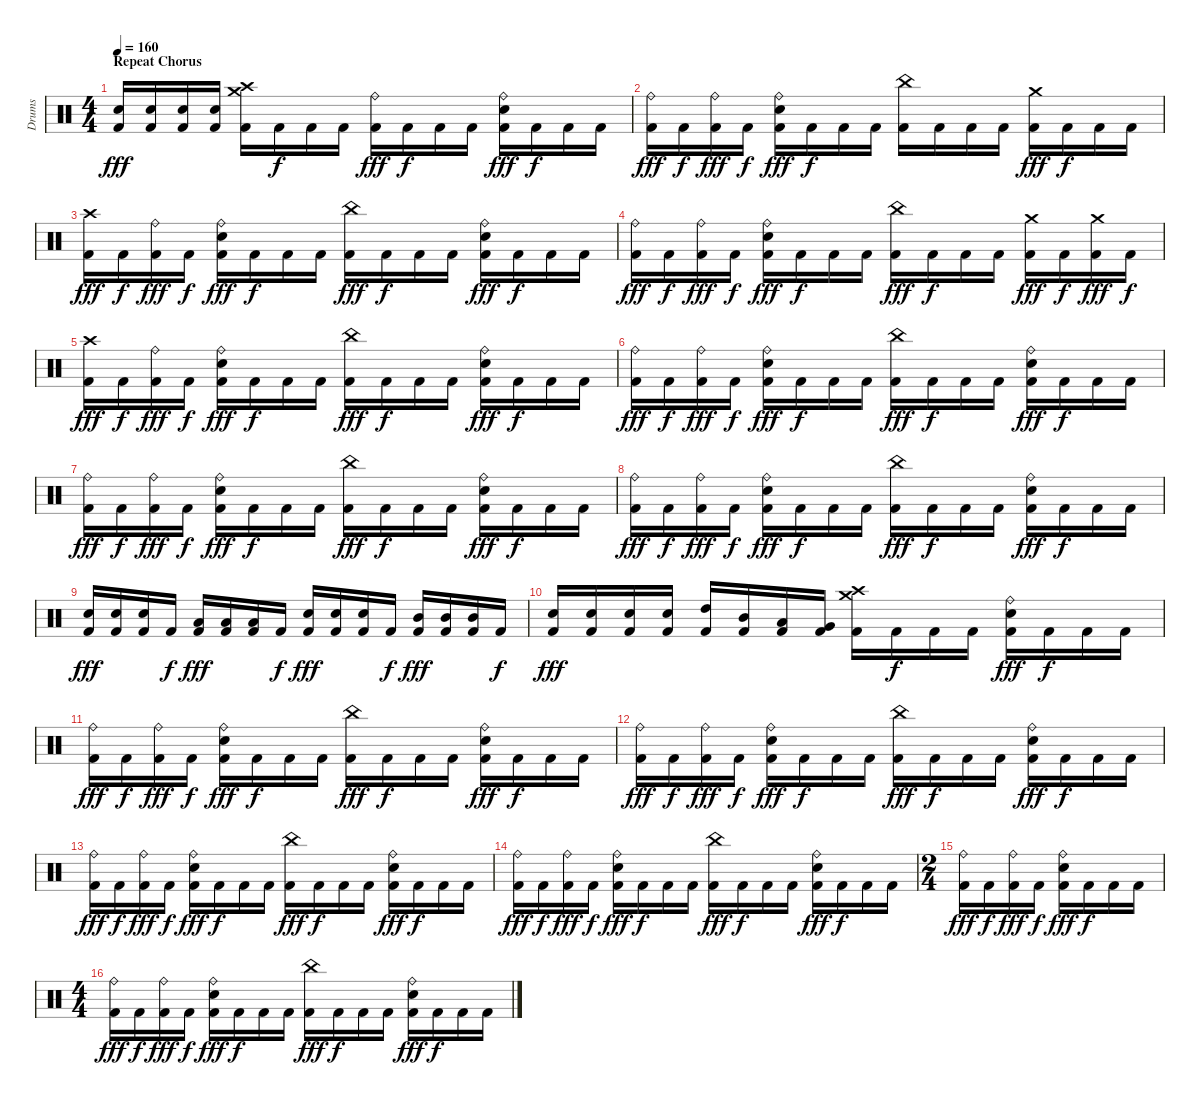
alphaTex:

\track ("Drums" "Drums") {instrument percussion}
\staff {score}
\articulation defaults
\ts (4 4)
\section ("" "Repeat Chorus")
\tempo 160
\clef neutral
\ks c
("Electric Snare (hit)" "Kick (hit) 2").16{dy fff} ("Electric Snare (hit)" "Kick (hit) 2").16 ("Electric Snare (hit)" "Kick (hit) 2").16 ("Electric Snare (hit)" "Kick (hit) 2").16 ("Crash high (hit)" "Crash medium (hit)" "Kick (hit) 2").16 "Kick (hit) 2".16{dy f} "Kick (hit) 2".16 "Kick (hit) 2".16 ("Ride (bell)" "Kick (hit) 2").16{dy fff} "Kick (hit) 2".16{dy f} "Kick (hit) 2".16 "Kick (hit) 2".16 ("Ride (bell)" "Electric Snare (hit)" "Kick (hit) 2").16{dy fff} "Kick (hit) 2".16{dy f} "Kick (hit) 2".16 "Kick (hit) 2".16 |
("Ride (bell)" "Kick (hit) 2").16{dy fff} "Kick (hit) 2".16{dy f} ("Ride (bell)" "Kick (hit) 2").16{dy fff} "Kick (hit) 2".16{dy f} ("Ride (bell)" "Electric Snare (hit)" "Kick (hit) 2").16{dy fff} "Kick (hit) 2".16{dy f} "Kick (hit) 2".16 "Kick (hit) 2".16 ("China (hit)" "Kick (hit) 2").16 "Kick (hit) 2".16 "Kick (hit) 2".16 "Kick (hit) 2".16 ("Crash medium (hit)" "Kick (hit) 2").16{dy fff} "Kick (hit) 2".16{dy f} "Kick (hit) 2".16 "Kick (hit) 2".16 |
("Crash high (hit)" "Kick (hit) 2").16{dy fff} "Kick (hit) 2".16{dy f} ("Ride (bell)" "Kick (hit) 2").16{dy fff} "Kick (hit) 2".16{dy f} ("Ride (bell)" "Electric Snare (hit)" "Kick (hit) 2").16{dy fff} "Kick (hit) 2".16{dy f} "Kick (hit) 2".16 "Kick (hit) 2".16 ("China (hit)" "Kick (hit) 2").16{dy fff} "Kick (hit) 2".16{dy f} "Kick (hit) 2".16 "Kick (hit) 2".16 ("Ride (bell)" "Electric Snare (hit)" "Kick (hit) 2").16{dy fff} "Kick (hit) 2".16{dy f} "Kick (hit) 2".16 "Kick (hit) 2".16 |
("Ride (bell)" "Kick (hit) 2").16{dy fff} "Kick (hit) 2".16{dy f} ("Ride (bell)" "Kick (hit) 2").16{dy fff} "Kick (hit) 2".16{dy f} ("Ride (bell)" "Electric Snare (hit)" "Kick (hit) 2").16{dy fff} "Kick (hit) 2".16{dy f} "Kick (hit) 2".16 "Kick (hit) 2".16 ("China (hit)" "Kick (hit) 2").16{dy fff} "Kick (hit) 2".16{dy f} "Kick (hit) 2".16 "Kick (hit) 2".16 ("Crash medium (hit)" "Kick (hit) 2").16{dy fff} "Kick (hit) 2".16{dy f} ("Crash medium (hit)" "Kick (hit) 2").16{dy fff} "Kick (hit) 2".16{dy f} |
("Crash high (hit)" "Kick (hit) 2").16{dy fff} "Kick (hit) 2".16{dy f} ("Ride (bell)" "Kick (hit) 2").16{dy fff} "Kick (hit) 2".16{dy f} ("Ride (bell)" "Electric Snare (hit)" "Kick (hit) 2").16{dy fff} "Kick (hit) 2".16{dy f} "Kick (hit) 2".16 "Kick (hit) 2".16 ("China (hit)" "Kick (hit) 2").16{dy fff} "Kick (hit) 2".16{dy f} "Kick (hit) 2".16 "Kick (hit) 2".16 ("Ride (bell)" "Electric Snare (hit)" "Kick (hit) 2").16{dy fff} "Kick (hit) 2".16{dy f} "Kick (hit) 2".16 "Kick (hit) 2".16 |
("Ride (bell)" "Kick (hit) 2").16{dy fff} "Kick (hit) 2".16{dy f} ("Ride (bell)" "Kick (hit) 2").16{dy fff} "Kick (hit) 2".16{dy f} ("Ride (bell)" "Electric Snare (hit)" "Kick (hit) 2").16{dy fff} "Kick (hit) 2".16{dy f} "Kick (hit) 2".16 "Kick (hit) 2".16 ("China (hit)" "Kick (hit) 2").16{dy fff} "Kick (hit) 2".16{dy f} "Kick (hit) 2".16 "Kick (hit) 2".16 ("Ride (bell)" "Electric Snare (hit)" "Kick (hit) 2").16{dy fff} "Kick (hit) 2".16{dy f} "Kick (hit) 2".16 "Kick (hit) 2".16 |
("Ride (bell)" "Kick (hit) 2").16{dy fff} "Kick (hit) 2".16{dy f} ("Ride (bell)" "Kick (hit) 2").16{dy fff} "Kick (hit) 2".16{dy f} ("Ride (bell)" "Electric Snare (hit)" "Kick (hit) 2").16{dy fff} "Kick (hit) 2".16{dy f} "Kick (hit) 2".16 "Kick (hit) 2".16 ("China (hit)" "Kick (hit) 2").16{dy fff} "Kick (hit) 2".16{dy f} "Kick (hit) 2".16 "Kick (hit) 2".16 ("Ride (bell)" "Electric Snare (hit)" "Kick (hit) 2").16{dy fff} "Kick (hit) 2".16{dy f} "Kick (hit) 2".16 "Kick (hit) 2".16 |
("Ride (bell)" "Kick (hit) 2").16{dy fff} "Kick (hit) 2".16{dy f} ("Ride (bell)" "Kick (hit) 2").16{dy fff} "Kick (hit) 2".16{dy f} ("Ride (bell)" "Electric Snare (hit)" "Kick (hit) 2").16{dy fff} "Kick (hit) 2".16{dy f} "Kick (hit) 2".16 "Kick (hit) 2".16 ("China (hit)" "Kick (hit) 2").16{dy fff} "Kick (hit) 2".16{dy f} "Kick (hit) 2".16 "Kick (hit) 2".16 ("Ride (bell)" "Electric Snare (hit)" "Kick (hit) 2").16{dy fff} "Kick (hit) 2".16{dy f} "Kick (hit) 2".16 "Kick (hit) 2".16 |
("Electric Snare (hit)" "Kick (hit) 2").16{dy fff} ("Electric Snare (hit)" "Kick (hit) 2").16 ("Electric Snare (hit)" "Kick (hit) 2").16 "Kick (hit) 2".16{dy f} ("Low Tom (hit)" "Kick (hit) 2").16{dy fff} ("Low Tom (hit)" "Kick (hit) 2").16 ("Low Tom (hit)" "Kick (hit) 2").16 "Kick (hit) 2".16{dy f} ("Electric Snare (hit)" "Kick (hit) 2").16{dy fff} ("Electric Snare (hit)" "Kick (hit) 2").16 ("Electric Snare (hit)" "Kick (hit) 2").16 "Kick (hit) 2".16{dy f} ("Mid Tom (hit)" "Kick (hit) 2").16{dy fff} ("Mid Tom (hit)" "Kick (hit) 2").16 ("Mid Tom (hit)" "Kick (hit) 2").16 "Kick (hit) 2".16{dy f} |
("Electric Snare (hit)" "Kick (hit) 2").16{dy fff} ("Electric Snare (hit)" "Kick (hit) 2").16 ("Electric Snare (hit)" "Kick (hit) 2").16 ("Electric Snare (hit)" "Kick (hit) 2").16 ("High Tom (hit)" "Kick (hit) 2").16 ("Mid Tom (hit)" "Kick (hit) 2").16 ("Low Tom (hit)" "Kick (hit) 2").16 ("Very Low Tom (hit)" "Kick (hit) 2").16 ("Crash high (hit)" "Crash medium (hit)" "Kick (hit) 2").16 "Kick (hit) 2".16{dy f} "Kick (hit) 2".16 "Kick (hit) 2".16 ("Ride (bell)" "Electric Snare (hit)" "Kick (hit) 2").16{dy fff} "Kick (hit) 2".16{dy f} "Kick (hit) 2".16 "Kick (hit) 2".16 |
("Ride (bell)" "Kick (hit) 2").16{dy fff} "Kick (hit) 2".16{dy f} ("Ride (bell)" "Kick (hit) 2").16{dy fff} "Kick (hit) 2".16{dy f} ("Ride (bell)" "Electric Snare (hit)" "Kick (hit) 2").16{dy fff} "Kick (hit) 2".16{dy f} "Kick (hit) 2".16 "Kick (hit) 2".16 ("China (hit)" "Kick (hit) 2").16{dy fff} "Kick (hit) 2".16{dy f} "Kick (hit) 2".16 "Kick (hit) 2".16 ("Ride (bell)" "Electric Snare (hit)" "Kick (hit) 2").16{dy fff} "Kick (hit) 2".16{dy f} "Kick (hit) 2".16 "Kick (hit) 2".16 |
("Ride (bell)" "Kick (hit) 2").16{dy fff} "Kick (hit) 2".16{dy f} ("Ride (bell)" "Kick (hit) 2").16{dy fff} "Kick (hit) 2".16{dy f} ("Ride (bell)" "Electric Snare (hit)" "Kick (hit) 2").16{dy fff} "Kick (hit) 2".16{dy f} "Kick (hit) 2".16 "Kick (hit) 2".16 ("China (hit)" "Kick (hit) 2").16{dy fff} "Kick (hit) 2".16{dy f} "Kick (hit) 2".16 "Kick (hit) 2".16 ("Ride (bell)" "Electric Snare (hit)" "Kick (hit) 2").16{dy fff} "Kick (hit) 2".16{dy f} "Kick (hit) 2".16 "Kick (hit) 2".16 |
("Ride (bell)" "Kick (hit) 2").16{dy fff} "Kick (hit) 2".16{dy f} ("Ride (bell)" "Kick (hit) 2").16{dy fff} "Kick (hit) 2".16{dy f} ("Ride (bell)" "Electric Snare (hit)" "Kick (hit) 2").16{dy fff} "Kick (hit) 2".16{dy f} "Kick (hit) 2".16 "Kick (hit) 2".16 ("China (hit)" "Kick (hit) 2").16{dy fff} "Kick (hit) 2".16{dy f} "Kick (hit) 2".16 "Kick (hit) 2".16 ("Ride (bell)" "Electric Snare (hit)" "Kick (hit) 2").16{dy fff} "Kick (hit) 2".16{dy f} "Kick (hit) 2".16 "Kick (hit) 2".16 |
("Ride (bell)" "Kick (hit) 2").16{dy fff} "Kick (hit) 2".16{dy f} ("Ride (bell)" "Kick (hit) 2").16{dy fff} "Kick (hit) 2".16{dy f} ("Ride (bell)" "Electric Snare (hit)" "Kick (hit) 2").16{dy fff} "Kick (hit) 2".16{dy f} "Kick (hit) 2".16 "Kick (hit) 2".16 ("China (hit)" "Kick (hit) 2").16{dy fff} "Kick (hit) 2".16{dy f} "Kick (hit) 2".16 "Kick (hit) 2".16 ("Ride (bell)" "Electric Snare (hit)" "Kick (hit) 2").16{dy fff} "Kick (hit) 2".16{dy f} "Kick (hit) 2".16 "Kick (hit) 2".16 |
\ts (2 4)
("Ride (bell)" "Kick (hit) 2").16{dy fff} "Kick (hit) 2".16{dy f} ("Ride (bell)" "Kick (hit) 2").16{dy fff} "Kick (hit) 2".16{dy f} ("Ride (bell)" "Electric Snare (hit)" "Kick (hit) 2").16{dy fff} "Kick (hit) 2".16{dy f} "Kick (hit) 2".16 "Kick (hit) 2".16 |
\ts (4 4)
("Ride (bell)" "Kick (hit) 2").16{dy fff} "Kick (hit) 2".16{dy f} ("Ride (bell)" "Kick (hit) 2").16{dy fff} "Kick (hit) 2".16{dy f} ("Ride (bell)" "Electric Snare (hit)" "Kick (hit) 2").16{dy fff} "Kick (hit) 2".16{dy f} "Kick (hit) 2".16 "Kick (hit) 2".16 ("China (hit)" "Kick (hit) 2").16{dy fff} "Kick (hit) 2".16{dy f} "Kick (hit) 2".16 "Kick (hit) 2".16 ("Ride (bell)" "Electric Snare (hit)" "Kick (hit) 2").16{dy fff} "Kick (hit) 2".16{dy f} "Kick (hit) 2".16 "Kick (hit) 2".16
